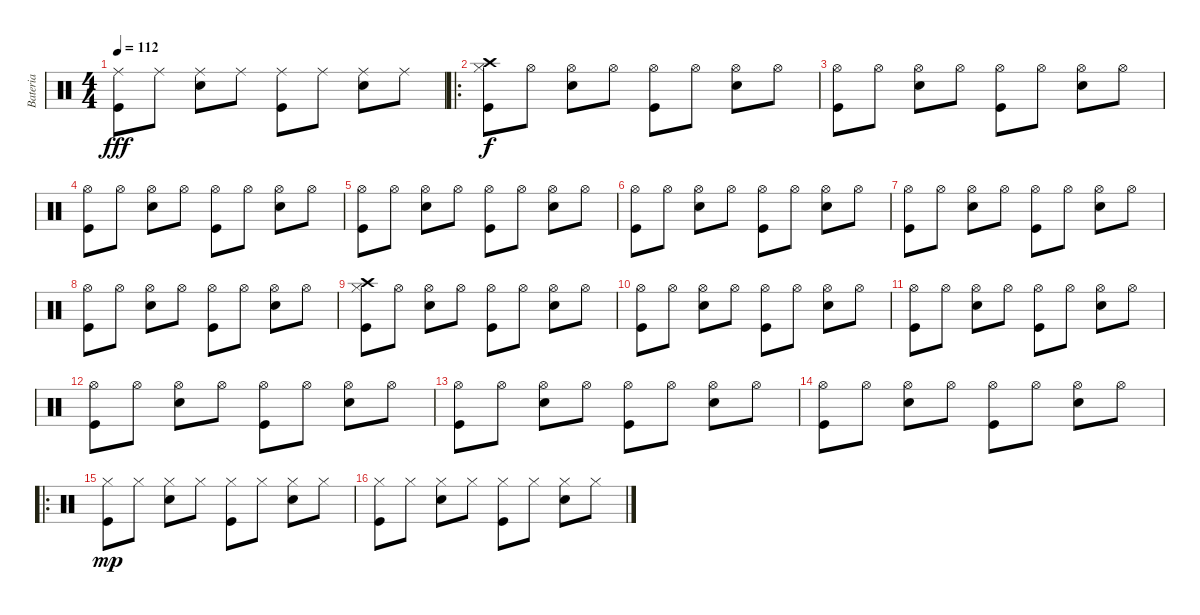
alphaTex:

\track ("Bateria" "Bateria") {instrument percussion}
\staff {score}
\articulation defaults
\ts (4 4)
\tempo 112
\clef neutral
\ks c
("Kick (hit)" "Ride (middle)").8{dy fff} "Ride (middle)".8 ("Ride (middle)" "Snare (hit) 2").8 "Ride (middle)".8 ("Kick (hit)" "Ride (middle)").8 "Ride (middle)".8 ("Ride (middle)" "Snare (hit) 2").8 "Ride (middle)".8 |
\ro
("Crash high (hit)" "Kick (hit)" "Hi-Hat (closed)").8{dy f} "Hi-Hat (open)".8 ("Hi-Hat (open)" "Snare (hit) 2").8 "Hi-Hat (open)".8 ("Hi-Hat (open)" "Kick (hit)").8 "Hi-Hat (open)".8 ("Hi-Hat (open)" "Snare (hit) 2").8 "Hi-Hat (open)".8 |
("Hi-Hat (open)" "Kick (hit)").8 "Hi-Hat (open)".8 ("Hi-Hat (open)" "Snare (hit) 2").8 "Hi-Hat (open)".8 ("Hi-Hat (open)" "Kick (hit)").8 "Hi-Hat (open)".8 ("Hi-Hat (open)" "Snare (hit) 2").8 "Hi-Hat (open)".8 |
("Hi-Hat (open)" "Kick (hit)").8 "Hi-Hat (open)".8 ("Hi-Hat (open)" "Snare (hit) 2").8 "Hi-Hat (open)".8 ("Hi-Hat (open)" "Kick (hit)").8 "Hi-Hat (open)".8 ("Hi-Hat (open)" "Snare (hit) 2").8 "Hi-Hat (open)".8 |
("Hi-Hat (open)" "Kick (hit)").8 "Hi-Hat (open)".8 ("Hi-Hat (open)" "Snare (hit) 2").8 "Hi-Hat (open)".8 ("Hi-Hat (open)" "Kick (hit)").8 "Hi-Hat (open)".8 ("Hi-Hat (open)" "Snare (hit) 2").8 "Hi-Hat (open)".8 |
("Hi-Hat (open)" "Kick (hit)").8 "Hi-Hat (open)".8 ("Hi-Hat (open)" "Snare (hit) 2").8 "Hi-Hat (open)".8 ("Hi-Hat (open)" "Kick (hit)").8 "Hi-Hat (open)".8 ("Hi-Hat (open)" "Snare (hit) 2").8 "Hi-Hat (open)".8 |
("Hi-Hat (open)" "Kick (hit)").8 "Hi-Hat (open)".8 ("Hi-Hat (open)" "Snare (hit) 2").8 "Hi-Hat (open)".8 ("Hi-Hat (open)" "Kick (hit)").8 "Hi-Hat (open)".8 ("Hi-Hat (open)" "Snare (hit) 2").8 "Hi-Hat (open)".8 |
("Hi-Hat (open)" "Kick (hit)").8 "Hi-Hat (open)".8 ("Hi-Hat (open)" "Snare (hit) 2").8 "Hi-Hat (open)".8 ("Hi-Hat (open)" "Kick (hit)").8 "Hi-Hat (open)".8 ("Hi-Hat (open)" "Snare (hit) 2").8 "Hi-Hat (open)".8 |
("Crash high (hit)" "Kick (hit)" "Hi-Hat (closed)").8 "Hi-Hat (open)".8 ("Hi-Hat (open)" "Snare (hit) 2").8 "Hi-Hat (open)".8 ("Hi-Hat (open)" "Kick (hit)").8 "Hi-Hat (open)".8 ("Hi-Hat (open)" "Snare (hit) 2").8 "Hi-Hat (open)".8 |
("Hi-Hat (open)" "Kick (hit)").8 "Hi-Hat (open)".8 ("Hi-Hat (open)" "Snare (hit) 2").8 "Hi-Hat (open)".8 ("Hi-Hat (open)" "Kick (hit)").8 "Hi-Hat (open)".8 ("Hi-Hat (open)" "Snare (hit) 2").8 "Hi-Hat (open)".8 |
("Hi-Hat (open)" "Kick (hit)").8 "Hi-Hat (open)".8 ("Hi-Hat (open)" "Snare (hit) 2").8 "Hi-Hat (open)".8 ("Hi-Hat (open)" "Kick (hit)").8 "Hi-Hat (open)".8 ("Hi-Hat (open)" "Snare (hit) 2").8 "Hi-Hat (open)".8 |
("Hi-Hat (open)" "Kick (hit)").8 "Hi-Hat (open)".8 ("Hi-Hat (open)" "Snare (hit) 2").8 "Hi-Hat (open)".8 ("Hi-Hat (open)" "Kick (hit)").8 "Hi-Hat (open)".8 ("Hi-Hat (open)" "Snare (hit) 2").8 "Hi-Hat (open)".8 |
("Hi-Hat (open)" "Kick (hit)").8 "Hi-Hat (open)".8 ("Hi-Hat (open)" "Snare (hit) 2").8 "Hi-Hat (open)".8 ("Hi-Hat (open)" "Kick (hit)").8 "Hi-Hat (open)".8 ("Hi-Hat (open)" "Snare (hit) 2").8 "Hi-Hat (open)".8 |
("Hi-Hat (open)" "Kick (hit)").8 "Hi-Hat (open)".8 ("Hi-Hat (open)" "Snare (hit) 2").8 "Hi-Hat (open)".8 ("Hi-Hat (open)" "Kick (hit)").8 "Hi-Hat (open)".8 ("Hi-Hat (open)" "Snare (hit) 2").8 "Hi-Hat (open)".8 |
\ro
("Hi-Hat (closed)" "Kick (hit)").8{dy mp} "Hi-Hat (closed)".8 ("Hi-Hat (closed)" "Snare (hit) 2").8 "Hi-Hat (closed)".8 ("Hi-Hat (closed)" "Kick (hit)").8 "Hi-Hat (closed)".8 ("Hi-Hat (closed)" "Snare (hit) 2").8 "Hi-Hat (closed)".8 |
("Hi-Hat (closed)" "Kick (hit)").8 "Hi-Hat (closed)".8 ("Hi-Hat (closed)" "Snare (hit) 2").8 "Hi-Hat (closed)".8 ("Hi-Hat (closed)" "Kick (hit)").8 "Hi-Hat (closed)".8 ("Hi-Hat (closed)" "Snare (hit) 2").8 "Hi-Hat (closed)".8
